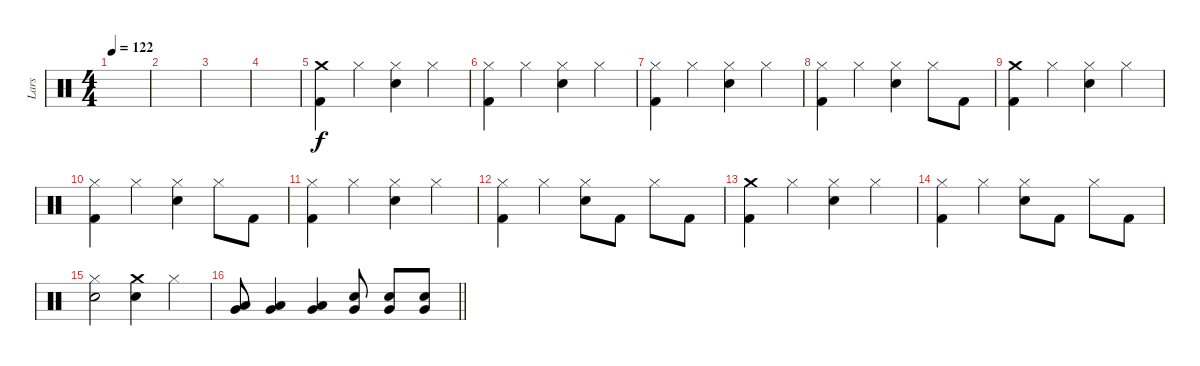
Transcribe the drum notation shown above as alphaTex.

\track ("Lars" "Lars") {instrument percussion}
\staff {score}
\articulation defaults
\ts (4 4)
\tempo 122
\clef neutral
\ks c
|
|
|
|
("Crash medium (hit)" "Kick (hit) 2").4 "Hi-Hat (closed)".4 ("Hi-Hat (closed)" "Snare (hit) 2").4 "Hi-Hat (closed)".4 |
("Hi-Hat (closed)" "Kick (hit) 2").4 "Hi-Hat (closed)".4 ("Hi-Hat (closed)" "Snare (hit) 2").4 "Hi-Hat (closed)".4 |
("Hi-Hat (closed)" "Kick (hit) 2").4 "Hi-Hat (closed)".4 ("Hi-Hat (closed)" "Snare (hit) 2").4 "Hi-Hat (closed)".4 |
("Hi-Hat (closed)" "Kick (hit) 2").4 "Hi-Hat (closed)".4 ("Hi-Hat (closed)" "Snare (hit) 2").4 "Hi-Hat (closed)".8 "Kick (hit) 2".8 |
("Crash medium (hit)" "Kick (hit) 2").4 "Hi-Hat (closed)".4 ("Hi-Hat (closed)" "Snare (hit) 2").4 "Hi-Hat (closed)".4 |
("Hi-Hat (closed)" "Kick (hit) 2").4 "Hi-Hat (closed)".4 ("Hi-Hat (closed)" "Snare (hit) 2").4 "Hi-Hat (closed)".8 "Kick (hit) 2".8 |
("Hi-Hat (closed)" "Kick (hit) 2").4 "Hi-Hat (closed)".4 ("Hi-Hat (closed)" "Snare (hit) 2").4 "Hi-Hat (closed)".4 |
("Hi-Hat (closed)" "Kick (hit) 2").4 "Hi-Hat (closed)".4 ("Hi-Hat (closed)" "Snare (hit) 2").8 "Kick (hit) 2".8 "Hi-Hat (closed)".8 "Kick (hit) 2".8 |
("Crash medium (hit)" "Kick (hit) 2").4 "Hi-Hat (closed)".4 ("Hi-Hat (closed)" "Snare (hit) 2").4 "Hi-Hat (closed)".4 |
("Hi-Hat (closed)" "Kick (hit) 2").4 "Hi-Hat (closed)".4 ("Hi-Hat (closed)" "Snare (hit) 2").8 "Kick (hit) 2".8 "Hi-Hat (closed)".8 "Kick (hit) 2".8 |
("Hi-Hat (closed)" "Snare (hit) 2").2 ("Crash medium (hit)" "Snare (hit) 2").4 "Hi-Hat (closed)".4 |
\barLineRight lightlight
("Very Low Tom (hit)" "Low Tom (hit)").8 ("Very Low Tom (hit)" "Low Tom (hit)").4 ("Very Low Tom (hit)" "Low Tom (hit)").4 ("Very Low Tom (hit)" "Snare (hit) 2").8 ("Very Low Tom (hit)" "Snare (hit) 2").8 ("Very Low Tom (hit)" "Snare (hit) 2").8
